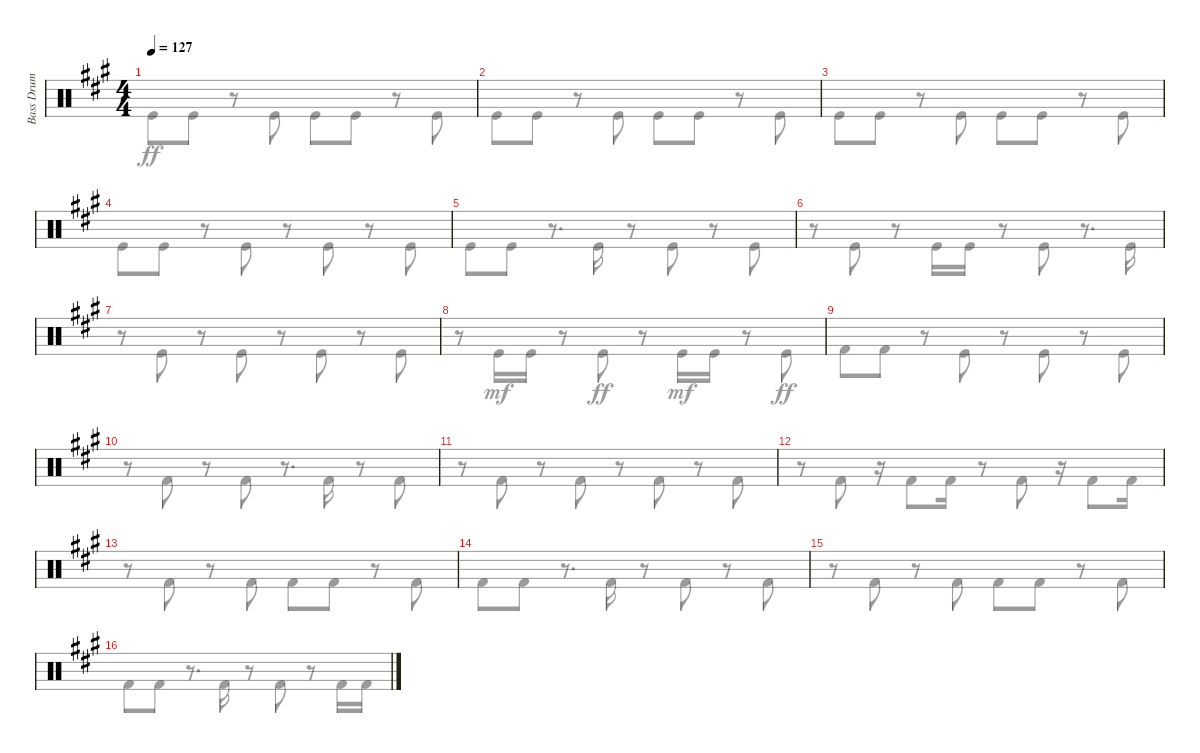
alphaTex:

\track ("Bass Drum" "Bass Drum") {instrument percussion}
\staff {score}
\articulation defaults
\voice
\ts (4 4)
\tempo 127
\clef neutral
\ks a
|
|
|
|
|
|
|
|
|
|
|
|
|
|
|
\voice
\clef neutral
\ks a "Kick (hit)".8{dy ff} "Kick (hit)".8
r.8 "Kick (hit)".8 "Kick (hit)".8 "Kick (hit)".8 r.8 "Kick (hit)".8 |
"Kick (hit)".8 "Kick (hit)".8 r.8 "Kick (hit)".8 "Kick (hit)".8 "Kick (hit)".8 r.8 "Kick (hit)".8 |
"Kick (hit)".8 "Kick (hit)".8 r.8 "Kick (hit)".8 "Kick (hit)".8 "Kick (hit)".8 r.8 "Kick (hit)".8 |
"Kick (hit)".8 "Kick (hit)".8 r.8 "Kick (hit)".8 r.8 "Kick (hit)".8 r.8 "Kick (hit)".8 |
"Kick (hit)".8 "Kick (hit)".8 r.8{d} "Kick (hit)".16 r.8 "Kick (hit)".8 r.8 "Kick (hit)".8 |
r.8 "Kick (hit)".8 r.8 "Kick (hit)".16 "Kick (hit)".16 r.8 "Kick (hit)".8 r.8{d} "Kick (hit)".16 |
r.8 "Kick (hit)".8 r.8 "Kick (hit)".8 r.8 "Kick (hit)".8 r.8 "Kick (hit)".8 |
r.8 "Kick (hit)".16{dy mf} "Kick (hit)".16 r.8 "Kick (hit)".8{dy ff} r.8 "Kick (hit)".16{dy mf} "Kick (hit)".16 r.8 "Kick (hit)".8{dy ff} |
"Kick (hit) 2".8 "Kick (hit) 2".8 r.8 "Kick (hit)".8 r.8 "Kick (hit)".8 r.8 "Kick (hit)".8 |
r.8 "Kick (hit) 2".8 r.8 "Kick (hit) 2".8 r.8{d} "Kick (hit) 2".16 r.8 "Kick (hit) 2".8 |
r.8 "Kick (hit) 2".8 r.8 "Kick (hit) 2".8 r.8 "Kick (hit) 2".8 r.8 "Kick (hit) 2".8 |
r.8 "Kick (hit) 2".8 r.16 "Kick (hit) 2".8 "Kick (hit) 2".16 r.8 "Kick (hit) 2".8 r.16 "Kick (hit) 2".8 "Kick (hit) 2".16 |
r.8 "Kick (hit) 2".8 r.8 "Kick (hit) 2".8 "Kick (hit) 2".8 "Kick (hit) 2".8 r.8 "Kick (hit) 2".8 |
"Kick (hit) 2".8 "Kick (hit) 2".8 r.8{d} "Kick (hit) 2".16 r.8 "Kick (hit) 2".8 r.8 "Kick (hit) 2".8 |
r.8 "Kick (hit) 2".8 r.8 "Kick (hit) 2".8 "Kick (hit) 2".8 "Kick (hit) 2".8 r.8 "Kick (hit) 2".8 |
"Kick (hit) 2".8 "Kick (hit) 2".8 r.8{d} "Kick (hit) 2".16 r.8 "Kick (hit) 2".8 r.8 "Kick (hit) 2".16 "Kick (hit) 2".16
